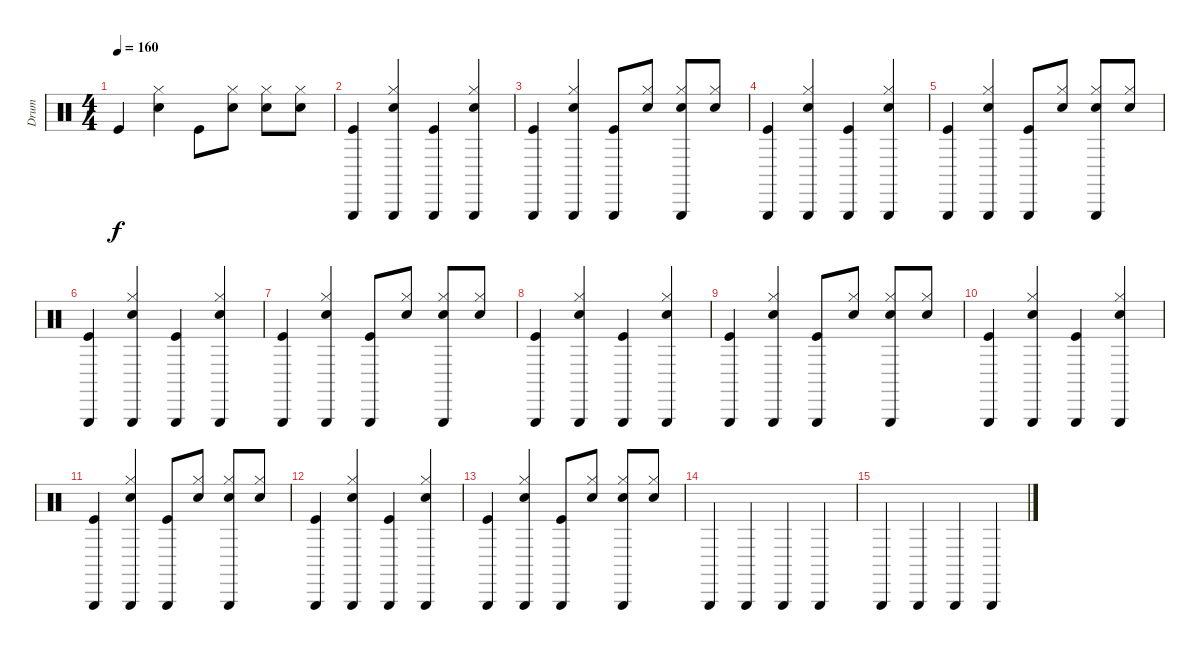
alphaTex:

\track ("Drum" "Drum") {instrument percussion}
\staff {score}
\articulation defaults
\ts (4 4)
\tempo 160
\clef neutral
\ks c "Kick (hit)".4{dy f}
("Hi-Hat (closed)" "Snare (hit) 2").4 "Kick (hit)".8 ("Hi-Hat (closed)" "Snare (hit) 2").8 ("Hi-Hat (closed)" "Snare (hit) 2").8 ("Hi-Hat (closed)" "Snare (hit) 2").8 |
("Triangle (hit)" "Kick (hit)").4 ("Triangle (hit)" "Hi-Hat (closed)" "Snare (hit) 2").4 ("Triangle (hit)" "Kick (hit)").4 ("Triangle (hit)" "Hi-Hat (closed)" "Snare (hit) 2").4 |
("Triangle (hit)" "Kick (hit)").4 ("Triangle (hit)" "Hi-Hat (closed)" "Snare (hit) 2").4 ("Triangle (hit)" "Kick (hit)").8 ("Hi-Hat (closed)" "Snare (hit) 2").8 ("Triangle (hit)" "Hi-Hat (closed)" "Snare (hit) 2").8 ("Hi-Hat (closed)" "Snare (hit) 2").8 |
("Triangle (hit)" "Kick (hit)").4 ("Triangle (hit)" "Hi-Hat (closed)" "Snare (hit) 2").4 ("Triangle (hit)" "Kick (hit)").4 ("Triangle (hit)" "Hi-Hat (closed)" "Snare (hit) 2").4 |
("Triangle (hit)" "Kick (hit)").4 ("Triangle (hit)" "Hi-Hat (closed)" "Snare (hit) 2").4 ("Triangle (hit)" "Kick (hit)").8 ("Hi-Hat (closed)" "Snare (hit) 2").8 ("Triangle (hit)" "Hi-Hat (closed)" "Snare (hit) 2").8 ("Hi-Hat (closed)" "Snare (hit) 2").8 |
("Triangle (hit)" "Kick (hit)").4 ("Triangle (hit)" "Hi-Hat (closed)" "Snare (hit) 2").4 ("Triangle (hit)" "Kick (hit)").4 ("Triangle (hit)" "Hi-Hat (closed)" "Snare (hit) 2").4 |
("Triangle (hit)" "Kick (hit)").4 ("Triangle (hit)" "Hi-Hat (closed)" "Snare (hit) 2").4 ("Triangle (hit)" "Kick (hit)").8 ("Hi-Hat (closed)" "Snare (hit) 2").8 ("Triangle (hit)" "Hi-Hat (closed)" "Snare (hit) 2").8 ("Hi-Hat (closed)" "Snare (hit) 2").8 |
("Triangle (hit)" "Kick (hit)").4 ("Triangle (hit)" "Hi-Hat (closed)" "Snare (hit) 2").4 ("Triangle (hit)" "Kick (hit)").4 ("Triangle (hit)" "Hi-Hat (closed)" "Snare (hit) 2").4 |
("Triangle (hit)" "Kick (hit)").4 ("Triangle (hit)" "Hi-Hat (closed)" "Snare (hit) 2").4 ("Triangle (hit)" "Kick (hit)").8 ("Hi-Hat (closed)" "Snare (hit) 2").8 ("Triangle (hit)" "Hi-Hat (closed)" "Snare (hit) 2").8 ("Hi-Hat (closed)" "Snare (hit) 2").8 |
("Triangle (hit)" "Kick (hit)").4 ("Triangle (hit)" "Hi-Hat (closed)" "Snare (hit) 2").4 ("Triangle (hit)" "Kick (hit)").4 ("Triangle (hit)" "Hi-Hat (closed)" "Snare (hit) 2").4 |
("Triangle (hit)" "Kick (hit)").4 ("Triangle (hit)" "Hi-Hat (closed)" "Snare (hit) 2").4 ("Triangle (hit)" "Kick (hit)").8 ("Hi-Hat (closed)" "Snare (hit) 2").8 ("Triangle (hit)" "Hi-Hat (closed)" "Snare (hit) 2").8 ("Hi-Hat (closed)" "Snare (hit) 2").8 |
("Triangle (hit)" "Kick (hit)").4 ("Triangle (hit)" "Hi-Hat (closed)" "Snare (hit) 2").4 ("Triangle (hit)" "Kick (hit)").4 ("Triangle (hit)" "Hi-Hat (closed)" "Snare (hit) 2").4 |
("Triangle (hit)" "Kick (hit)").4 ("Triangle (hit)" "Hi-Hat (closed)" "Snare (hit) 2").4 ("Triangle (hit)" "Kick (hit)").8 ("Hi-Hat (closed)" "Snare (hit) 2").8 ("Triangle (hit)" "Hi-Hat (closed)" "Snare (hit) 2").8 ("Hi-Hat (closed)" "Snare (hit) 2").8 |
"Triangle (hit)".4 "Triangle (hit)".4 "Triangle (hit)".4 "Triangle (hit)".4 |
"Triangle (hit)".4 "Triangle (hit)".4 "Triangle (hit)".4 "Triangle (hit)".4
